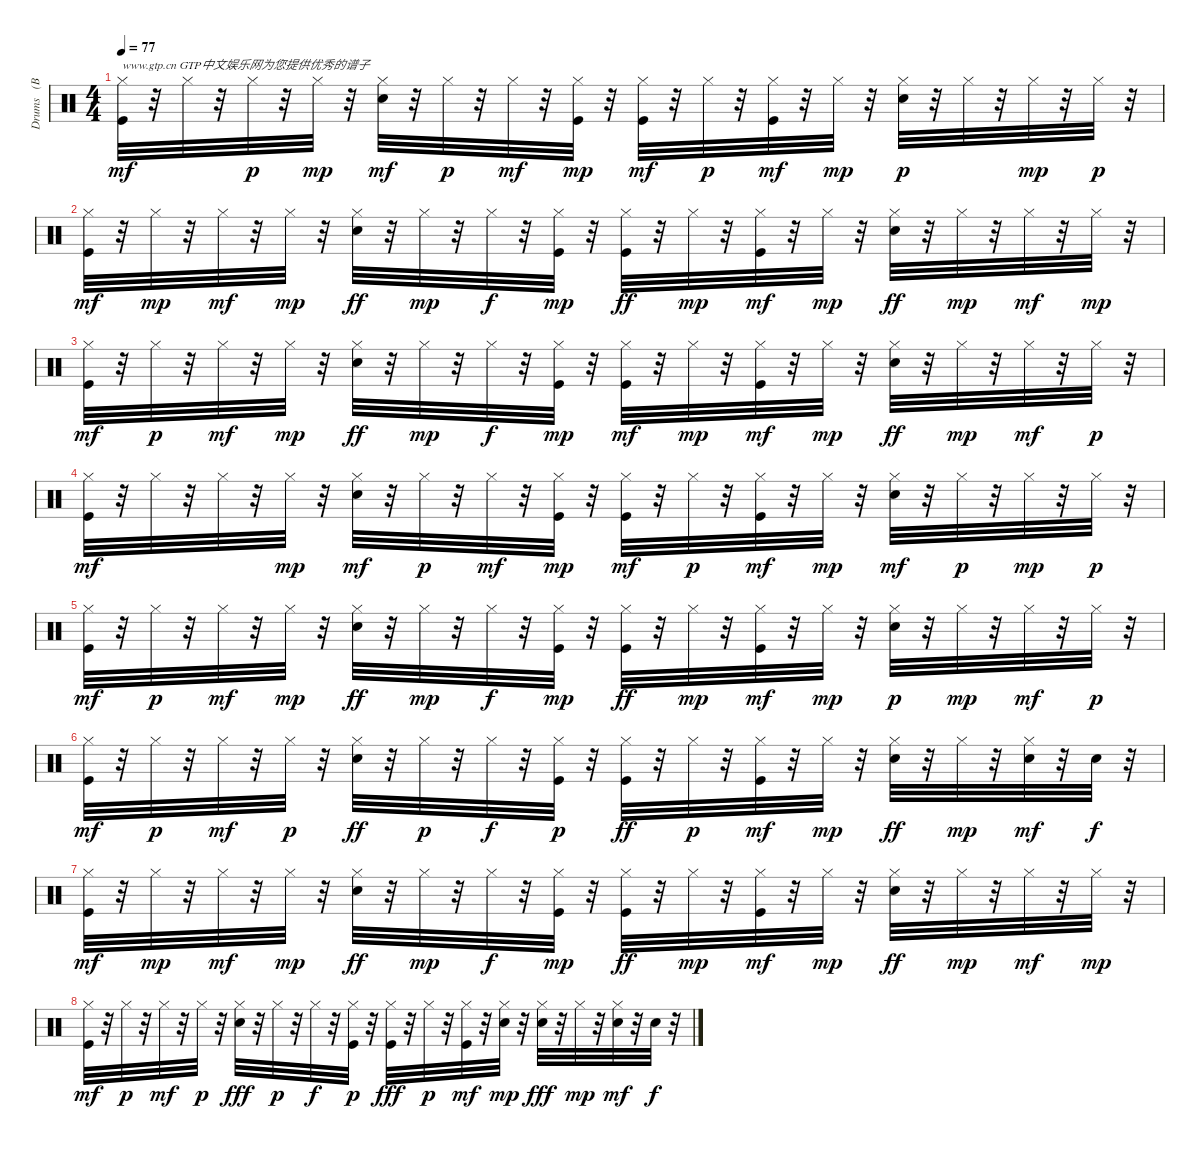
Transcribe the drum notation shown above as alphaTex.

\track ("Drums   (BB)" "Drums   (B") {instrument percussion}
\staff {score}
\articulation defaults
\ts (4 4)
\tempo 77
\clef neutral
\ks c
("Kick (hit)" "Hi-Hat (closed)").32{txt "www.gtp.cn GTP中文娱乐网为您提供优秀的谱子" dy mf} r.32 "Hi-Hat (closed)".32 r.32 "Hi-Hat (closed)".32{dy p} r.32 "Hi-Hat (closed)".32{dy mp} r.32 ("Snare (hit) 2" "Hi-Hat (closed)").32{dy mf} r.32 "Hi-Hat (closed)".32{dy p} r.32 "Hi-Hat (closed)".32{dy mf} r.32 ("Kick (hit)" "Hi-Hat (closed)").32{dy mp} r.32 ("Kick (hit)" "Hi-Hat (closed)").32{dy mf} r.32 "Hi-Hat (closed)".32{dy p} r.32 ("Kick (hit)" "Hi-Hat (closed)").32{dy mf} r.32 "Hi-Hat (closed)".32{dy mp} r.32 ("Snare (hit) 2" "Hi-Hat (closed)").32{dy p} r.32 "Hi-Hat (closed)".32 r.32 "Hi-Hat (closed)".32{dy mp} r.32 "Hi-Hat (closed)".32{dy p} r.32 |
("Kick (hit)" "Hi-Hat (closed)").32{dy mf} r.32 "Hi-Hat (closed)".32{dy mp} r.32 "Hi-Hat (closed)".32{dy mf} r.32 "Hi-Hat (closed)".32{dy mp} r.32 ("Snare (hit) 2" "Hi-Hat (closed)").32{dy ff} r.32 "Hi-Hat (closed)".32{dy mp} r.32 "Hi-Hat (closed)".32{dy f} r.32 ("Kick (hit)" "Hi-Hat (closed)").32{dy mp} r.32 ("Kick (hit)" "Hi-Hat (closed)").32{dy ff} r.32 "Hi-Hat (closed)".32{dy mp} r.32 ("Kick (hit)" "Hi-Hat (closed)").32{dy mf} r.32 "Hi-Hat (closed)".32{dy mp} r.32 ("Snare (hit) 2" "Hi-Hat (closed)").32{dy ff} r.32 "Hi-Hat (closed)".32{dy mp} r.32 "Hi-Hat (closed)".32{dy mf} r.32 "Hi-Hat (closed)".32{dy mp} r.32 |
("Kick (hit)" "Hi-Hat (closed)").32{dy mf} r.32 "Hi-Hat (closed)".32{dy p} r.32 "Hi-Hat (closed)".32{dy mf} r.32 "Hi-Hat (closed)".32{dy mp} r.32 ("Snare (hit) 2" "Hi-Hat (closed)").32{dy ff} r.32 "Hi-Hat (closed)".32{dy mp} r.32 "Hi-Hat (closed)".32{dy f} r.32 ("Kick (hit)" "Hi-Hat (closed)").32{dy mp} r.32 ("Kick (hit)" "Hi-Hat (closed)").32{dy mf} r.32 "Hi-Hat (closed)".32{dy mp} r.32 ("Kick (hit)" "Hi-Hat (closed)").32{dy mf} r.32 "Hi-Hat (closed)".32{dy mp} r.32 ("Snare (hit) 2" "Hi-Hat (closed)").32{dy ff} r.32 "Hi-Hat (closed)".32{dy mp} r.32 "Hi-Hat (closed)".32{dy mf} r.32 "Hi-Hat (closed)".32{dy p} r.32 |
("Kick (hit)" "Hi-Hat (closed)").32{dy mf} r.32 "Hi-Hat (closed)".32 r.32 "Hi-Hat (closed)".32 r.32 "Hi-Hat (closed)".32{dy mp} r.32 ("Snare (hit) 2" "Hi-Hat (closed)").32{dy mf} r.32 "Hi-Hat (closed)".32{dy p} r.32 "Hi-Hat (closed)".32{dy mf} r.32 ("Kick (hit)" "Hi-Hat (closed)").32{dy mp} r.32 ("Kick (hit)" "Hi-Hat (closed)").32{dy mf} r.32 "Hi-Hat (closed)".32{dy p} r.32 ("Kick (hit)" "Hi-Hat (closed)").32{dy mf} r.32 "Hi-Hat (closed)".32{dy mp} r.32 ("Snare (hit) 2" "Hi-Hat (closed)").32{dy mf} r.32 "Hi-Hat (closed)".32{dy p} r.32 "Hi-Hat (closed)".32{dy mp} r.32 "Hi-Hat (closed)".32{dy p} r.32 |
("Kick (hit)" "Hi-Hat (closed)").32{dy mf} r.32 "Hi-Hat (closed)".32{dy p} r.32 "Hi-Hat (closed)".32{dy mf} r.32 "Hi-Hat (closed)".32{dy mp} r.32 ("Snare (hit) 2" "Hi-Hat (closed)").32{dy ff} r.32 "Hi-Hat (closed)".32{dy mp} r.32 "Hi-Hat (closed)".32{dy f} r.32 ("Kick (hit)" "Hi-Hat (closed)").32{dy mp} r.32 ("Kick (hit)" "Hi-Hat (closed)").32{dy ff} r.32 "Hi-Hat (closed)".32{dy mp} r.32 ("Kick (hit)" "Hi-Hat (closed)").32{dy mf} r.32 "Hi-Hat (closed)".32{dy mp} r.32 ("Snare (hit) 2" "Hi-Hat (closed)").32{dy p} r.32 "Hi-Hat (closed)".32{dy mp} r.32 "Hi-Hat (closed)".32{dy mf} r.32 "Hi-Hat (closed)".32{dy p} r.32 |
("Kick (hit)" "Hi-Hat (closed)").32{dy mf} r.32 "Hi-Hat (closed)".32{dy p} r.32 "Hi-Hat (closed)".32{dy mf} r.32 "Hi-Hat (closed)".32{dy p} r.32 ("Snare (hit) 2" "Hi-Hat (closed)").32{dy ff} r.32 "Hi-Hat (closed)".32{dy p} r.32 "Hi-Hat (closed)".32{dy f} r.32 ("Kick (hit)" "Hi-Hat (closed)").32{dy p} r.32 ("Kick (hit)" "Hi-Hat (closed)").32{dy ff} r.32 "Hi-Hat (closed)".32{dy p} r.32 ("Kick (hit)" "Hi-Hat (closed)").32{dy mf} r.32 "Hi-Hat (closed)".32{dy mp} r.32 ("Snare (hit) 2" "Hi-Hat (closed)").32{dy ff} r.32 "Hi-Hat (closed)".32{dy mp} r.32 ("Snare (hit) 2" "Hi-Hat (closed)").32{dy mf} r.32 "Snare (hit) 2".32{dy f} r.32 |
("Kick (hit)" "Hi-Hat (closed)").32{dy mf} r.32 "Hi-Hat (closed)".32{dy mp} r.32 "Hi-Hat (closed)".32{dy mf} r.32 "Hi-Hat (closed)".32{dy mp} r.32 ("Snare (hit) 2" "Hi-Hat (closed)").32{dy ff} r.32 "Hi-Hat (closed)".32{dy mp} r.32 "Hi-Hat (closed)".32{dy f} r.32 ("Kick (hit)" "Hi-Hat (closed)").32{dy mp} r.32 ("Kick (hit)" "Hi-Hat (closed)").32{dy ff} r.32 "Hi-Hat (closed)".32{dy mp} r.32 ("Kick (hit)" "Hi-Hat (closed)").32{dy mf} r.32 "Hi-Hat (closed)".32{dy mp} r.32 ("Snare (hit) 2" "Hi-Hat (closed)").32{dy ff} r.32 "Hi-Hat (closed)".32{dy mp} r.32 "Hi-Hat (closed)".32{dy mf} r.32 "Hi-Hat (closed)".32{dy mp} r.32 |
("Kick (hit)" "Hi-Hat (closed)").32{dy mf} r.32 "Hi-Hat (closed)".32{dy p} r.32 "Hi-Hat (closed)".32{dy mf} r.32 "Hi-Hat (closed)".32{dy p} r.32 ("Snare (hit) 2" "Hi-Hat (closed)").32{dy fff} r.32 "Hi-Hat (closed)".32{dy p} r.32 "Hi-Hat (closed)".32{dy f} r.32 ("Kick (hit)" "Hi-Hat (closed)").32{dy p} r.32 ("Kick (hit)" "Hi-Hat (closed)").32{dy fff} r.32 "Hi-Hat (closed)".32{dy p} r.32 ("Kick (hit)" "Hi-Hat (closed)").32{dy mf} r.32 ("Snare (hit) 2" "Hi-Hat (closed)").32{dy mp} r.32 ("Snare (hit) 2" "Hi-Hat (closed)").32{dy fff} r.32 "Hi-Hat (closed)".32{dy mp} r.32 ("Snare (hit) 2" "Hi-Hat (closed)").32{dy mf} r.32 "Snare (hit) 2".32{dy f} r.32
